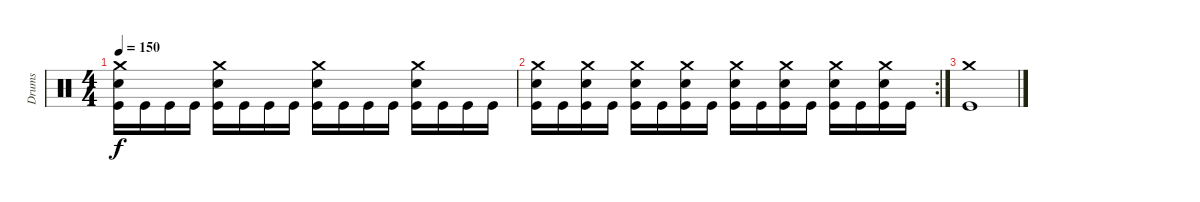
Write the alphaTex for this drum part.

\track ("Drums" "Drums") {instrument percussion}
\staff {score}
\articulation defaults
\ts (4 4)
\tempo 150
\clef neutral
\ks c
("Crash medium (hit)" "Electric Snare (hit)" "Kick (hit)").16{dy f} "Kick (hit)".16 "Kick (hit)".16 "Kick (hit)".16 ("Crash medium (hit)" "Electric Snare (hit)" "Kick (hit)").16 "Kick (hit)".16 "Kick (hit)".16 "Kick (hit)".16 ("Crash medium (hit)" "Electric Snare (hit)" "Kick (hit)").16 "Kick (hit)".16 "Kick (hit)".16 "Kick (hit)".16 ("Crash medium (hit)" "Electric Snare (hit)" "Kick (hit)").16 "Kick (hit)".16 "Kick (hit)".16 "Kick (hit)".16 |
\rc 2
("Crash medium (hit)" "Electric Snare (hit)" "Kick (hit)").16 "Kick (hit)".16 ("Crash medium (hit)" "Electric Snare (hit)" "Kick (hit)").16 "Kick (hit)".16 ("Crash medium (hit)" "Electric Snare (hit)" "Kick (hit)").16 "Kick (hit)".16 ("Crash medium (hit)" "Electric Snare (hit)" "Kick (hit)").16 "Kick (hit)".16 ("Crash medium (hit)" "Electric Snare (hit)" "Kick (hit)").16 "Kick (hit)".16 ("Crash medium (hit)" "Electric Snare (hit)" "Kick (hit)").16 "Kick (hit)".16 ("Crash medium (hit)" "Electric Snare (hit)" "Kick (hit)").16 "Kick (hit)".16 ("Crash medium (hit)" "Electric Snare (hit)" "Kick (hit)").16 "Kick (hit)".16 |
("Crash medium (hit)" "Kick (hit)").1
